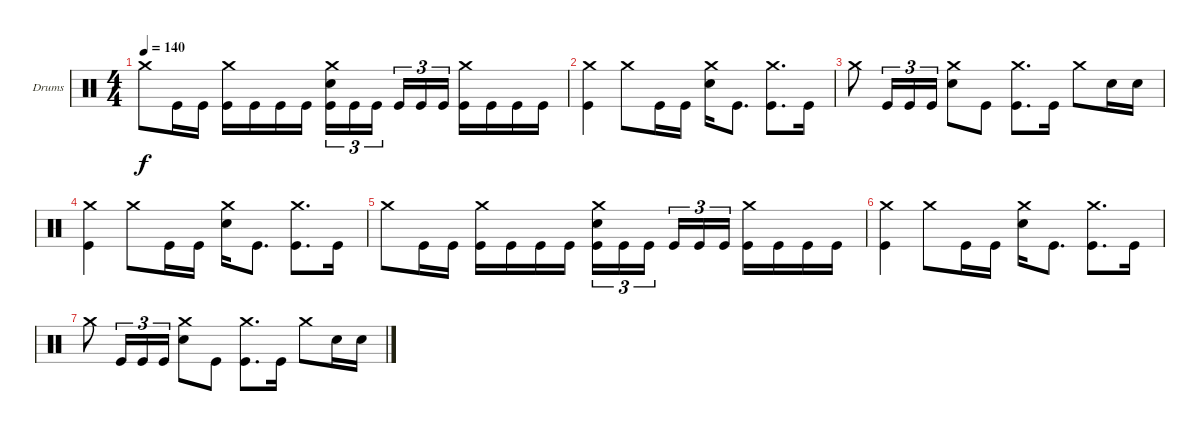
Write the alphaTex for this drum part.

\defaultSystemsLayout 4
\bracketExtendMode groupsimilarinstruments
\firstSystemTrackNameOrientation horizontal
\otherSystemsTrackNameOrientation horizontal
\track ("Drumkit" "Drums") {instrument percussion}
\staff {score}
\articulation defaults
\ts (4 4)
\tempo 140
\clef neutral
\ks c "Crash medium (hit)".8{dy f} "Kick (hit)".16 "Kick (hit)".16
("Crash medium (hit)" "Kick (hit)").16 "Kick (hit)".16 "Kick (hit)".16 "Kick (hit)".16 ("Crash medium (hit)" "Snare (hit) 2" "Kick (hit)").16{tu (3 2)} "Kick (hit)".16{tu (3 2)} "Kick (hit)".16{tu (3 2)} "Kick (hit)".16{tu (3 2)} "Kick (hit)".16{tu (3 2)} "Kick (hit)".16{tu (3 2)} ("Crash medium (hit)" "Kick (hit)").16 "Kick (hit)".16 "Kick (hit)".16 "Kick (hit)".16 |
("Crash medium (hit)" "Kick (hit)").4 "Crash medium (hit)".8 "Kick (hit)".16 "Kick (hit)".16 ("Crash medium (hit)" "Snare (hit) 2").16 "Kick (hit)".8{d} ("Crash medium (hit)" "Kick (hit)").8{d} "Kick (hit)".16 |
"Crash medium (hit)".8 "Kick (hit)".16{tu (3 2)} "Kick (hit)".16{tu (3 2)} "Kick (hit)".16{tu (3 2)} ("Crash medium (hit)" "Snare (hit) 2").8 "Kick (hit)".8 ("Crash medium (hit)" "Kick (hit)").8{d} "Kick (hit)".16 "Crash medium (hit)".8 "Snare (hit) 2".16 "Snare (hit) 2".16 |
("Crash medium (hit)" "Kick (hit)").4 "Crash medium (hit)".8 "Kick (hit)".16 "Kick (hit)".16 ("Crash medium (hit)" "Snare (hit) 2").16 "Kick (hit)".8{d} ("Crash medium (hit)" "Kick (hit)").8{d} "Kick (hit)".16 |
"Crash medium (hit)".8 "Kick (hit)".16 "Kick (hit)".16 ("Crash medium (hit)" "Kick (hit)").16 "Kick (hit)".16 "Kick (hit)".16 "Kick (hit)".16 ("Crash medium (hit)" "Snare (hit) 2" "Kick (hit)").16{tu (3 2)} "Kick (hit)".16{tu (3 2)} "Kick (hit)".16{tu (3 2)} "Kick (hit)".16{tu (3 2)} "Kick (hit)".16{tu (3 2)} "Kick (hit)".16{tu (3 2)} ("Crash medium (hit)" "Kick (hit)").16 "Kick (hit)".16 "Kick (hit)".16 "Kick (hit)".16 |
("Crash medium (hit)" "Kick (hit)").4 "Crash medium (hit)".8 "Kick (hit)".16 "Kick (hit)".16 ("Crash medium (hit)" "Snare (hit) 2").16 "Kick (hit)".8{d} ("Crash medium (hit)" "Kick (hit)").8{d} "Kick (hit)".16 |
"Crash medium (hit)".8 "Kick (hit)".16{tu (3 2)} "Kick (hit)".16{tu (3 2)} "Kick (hit)".16{tu (3 2)} ("Crash medium (hit)" "Snare (hit) 2").8 "Kick (hit)".8 ("Crash medium (hit)" "Kick (hit)").8{d} "Kick (hit)".16 "Crash medium (hit)".8 "Snare (hit) 2".16 "Snare (hit) 2".16
